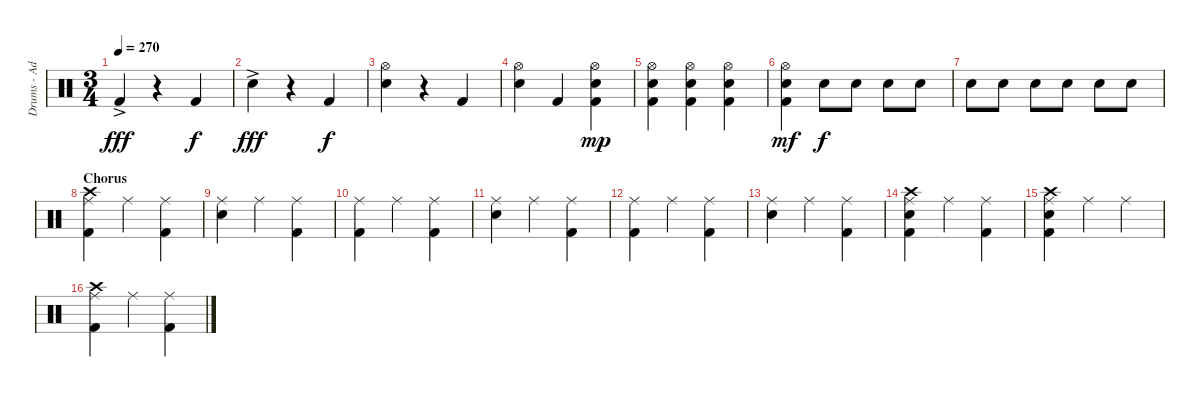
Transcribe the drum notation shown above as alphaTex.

\track ("Drums - Adam" "Drums - Ad") {instrument percussion}
\staff {score}
\articulation defaults
\ts (3 4)
\tempo 270
\clef neutral
\ks c "Kick (hit) 2"{ac}.4{dy fff}
r.4 "Kick (hit) 2".4{dy f} |
"Electric Snare (hit)"{ac}.4{dy fff} r.4 "Kick (hit) 2".4{dy f} |
("Hi-Hat (open)" "Electric Snare (hit)").4 r.4 "Kick (hit) 2".4 |
("Hi-Hat (open)" "Electric Snare (hit)").4 "Kick (hit) 2".4 ("Hi-Hat (open)" "Kick (hit) 2" "Electric Snare (hit)").4{dy mp} |
("Hi-Hat (open)" "Kick (hit) 2" "Electric Snare (hit)").4 ("Hi-Hat (open)" "Kick (hit) 2" "Electric Snare (hit)").4 ("Hi-Hat (open)" "Kick (hit) 2" "Electric Snare (hit)").4 |
("Hi-Hat (open)" "Kick (hit) 2" "Electric Snare (hit)").4{dy mf} "Electric Snare (hit)".8{dy f} "Electric Snare (hit)".8 "Electric Snare (hit)".8 "Electric Snare (hit)".8 |
"Electric Snare (hit)".8 "Electric Snare (hit)".8 "Electric Snare (hit)".8 "Electric Snare (hit)".8 "Electric Snare (hit)".8 "Electric Snare (hit)".8 |
\section ("" "Chorus")
("Ride (middle)" "Kick (hit) 2" "Crash high (hit)").4 "Ride (middle)".4 ("Ride (middle)" "Kick (hit) 2").4 |
("Ride (middle)" "Electric Snare (hit)").4 "Ride (middle)".4 ("Ride (middle)" "Kick (hit) 2").4 |
("Ride (middle)" "Kick (hit) 2").4 "Ride (middle)".4 ("Ride (middle)" "Kick (hit) 2").4 |
("Ride (middle)" "Electric Snare (hit)").4 "Ride (middle)".4 ("Ride (middle)" "Kick (hit) 2").4 |
("Ride (middle)" "Kick (hit) 2").4 "Ride (middle)".4 ("Ride (middle)" "Kick (hit) 2").4 |
("Ride (middle)" "Electric Snare (hit)").4 "Ride (middle)".4 ("Ride (middle)" "Kick (hit) 2").4 |
("Ride (middle)" "Kick (hit) 2" "Electric Snare (hit)" "Crash high (hit)").4 "Ride (middle)".4 ("Ride (middle)" "Kick (hit) 2").4 |
("Ride (middle)" "Kick (hit) 2" "Electric Snare (hit)" "Crash high (hit)").4 "Ride (middle)".4 "Ride (middle)".4 |
("Ride (middle)" "Kick (hit) 2" "Crash high (hit)").4 "Ride (middle)".4 ("Ride (middle)" "Kick (hit) 2").4
